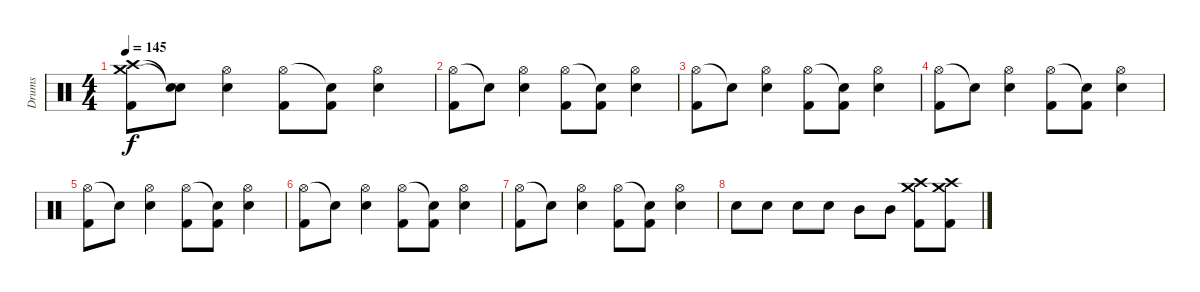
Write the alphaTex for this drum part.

\track ("Drums" "Drums") {instrument percussion}
\staff {score}
\articulation defaults
\ts (4 4)
\tempo 145
\clef neutral
\ks c
("Crash medium (hit)" "Crash high (hit)" "Kick (hit) 2").8{dy f} ("Snare (hit)"{t} "Snare (hit)"{t}).8 ("Hi-Hat (open)" "Electric Snare (hit)").4 ("Hi-Hat (open)" "Kick (hit) 2").8 ("Snare (hit)"{t} "Kick (hit) 2").8 ("Hi-Hat (open)" "Electric Snare (hit)").4 |
("Hi-Hat (open)" "Kick (hit) 2").8 "Snare (hit)"{t}.8 ("Hi-Hat (open)" "Electric Snare (hit)").4 ("Hi-Hat (open)" "Kick (hit) 2").8 ("Snare (hit)"{t} "Kick (hit) 2").8 ("Hi-Hat (open)" "Electric Snare (hit)").4 |
("Hi-Hat (open)" "Kick (hit) 2").8 "Snare (hit)"{t}.8 ("Hi-Hat (open)" "Electric Snare (hit)").4 ("Hi-Hat (open)" "Kick (hit) 2").8 ("Snare (hit)"{t} "Kick (hit) 2").8 ("Hi-Hat (open)" "Electric Snare (hit)").4 |
("Hi-Hat (open)" "Kick (hit) 2").8 "Snare (hit)"{t}.8 ("Hi-Hat (open)" "Electric Snare (hit)").4 ("Hi-Hat (open)" "Kick (hit) 2").8 ("Snare (hit)"{t} "Kick (hit) 2").8 ("Hi-Hat (open)" "Electric Snare (hit)").4 |
("Hi-Hat (open)" "Kick (hit) 2").8 "Snare (hit)"{t}.8 ("Hi-Hat (open)" "Electric Snare (hit)").4 ("Hi-Hat (open)" "Kick (hit) 2").8 ("Snare (hit)"{t} "Kick (hit) 2").8 ("Hi-Hat (open)" "Electric Snare (hit)").4 |
("Hi-Hat (open)" "Kick (hit) 2").8 "Snare (hit)"{t}.8 ("Hi-Hat (open)" "Electric Snare (hit)").4 ("Hi-Hat (open)" "Kick (hit) 2").8 ("Snare (hit)"{t} "Kick (hit) 2").8 ("Hi-Hat (open)" "Electric Snare (hit)").4 |
("Hi-Hat (open)" "Kick (hit) 2").8 "Snare (hit)"{t}.8 ("Hi-Hat (open)" "Electric Snare (hit)").4 ("Hi-Hat (open)" "Kick (hit) 2").8 ("Snare (hit)"{t} "Kick (hit) 2").8 ("Hi-Hat (open)" "Electric Snare (hit)").4 |
"Electric Snare (hit)".8 "Electric Snare (hit)".8 "Electric Snare (hit)".8 "Electric Snare (hit)".8 "Mid Tom (hit)".8 "Mid Tom (hit)".8 ("Crash high (hit)" "Crash medium (hit)" "Kick (hit) 2").8 ("Crash high (hit)" "Crash medium (hit)" "Kick (hit) 2").8
